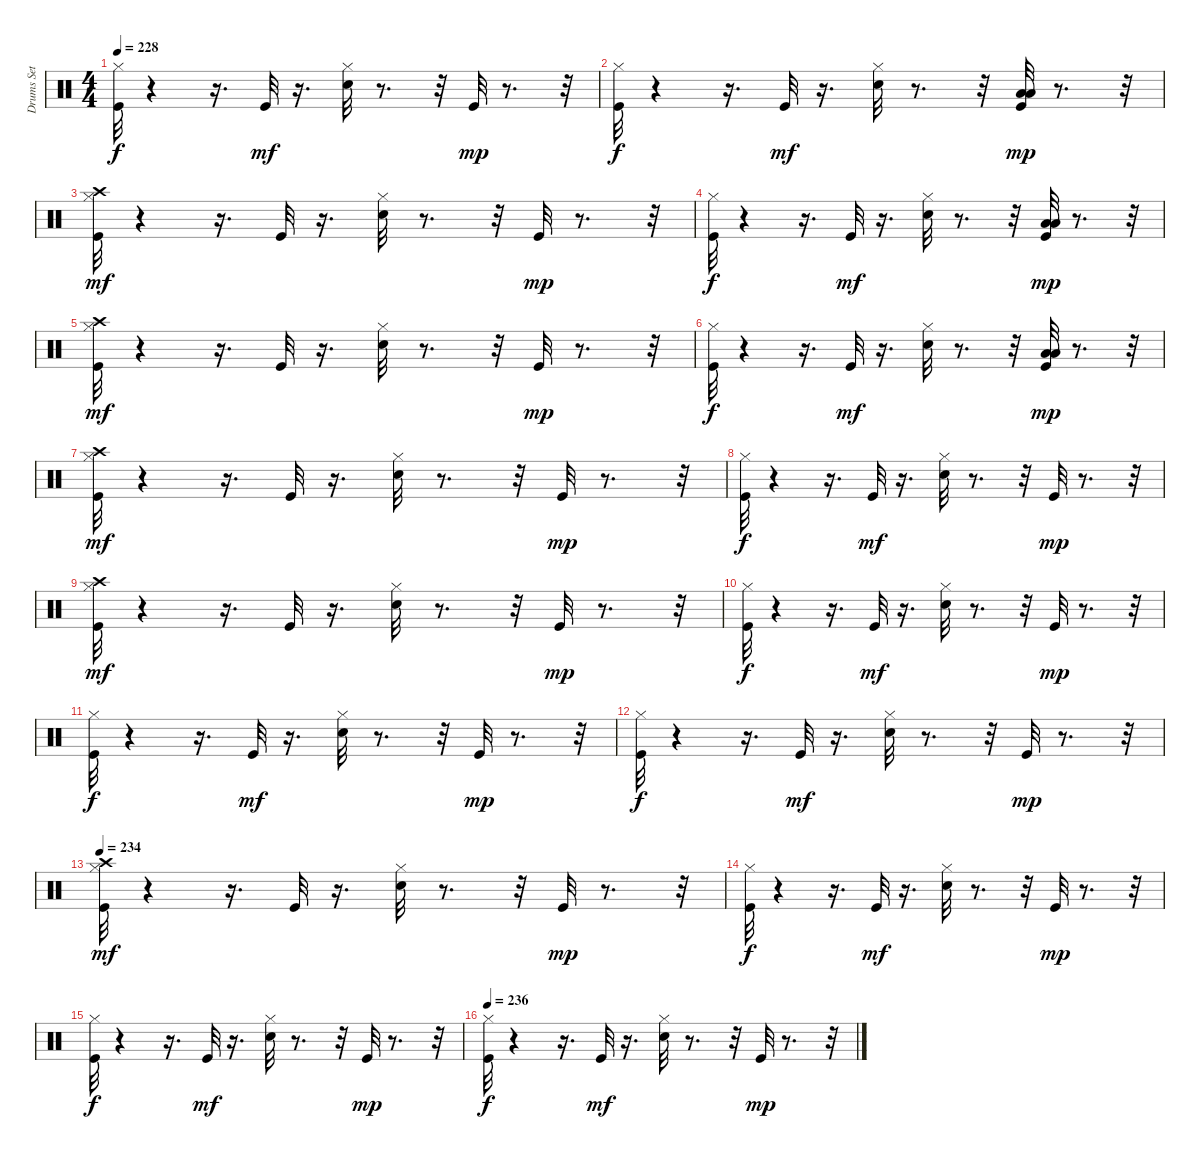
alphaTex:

\track ("Drums Set" "Drums Set") {instrument percussion}
\staff {score}
\articulation defaults
\ts (4 4)
\tempo 228
\clef neutral
\ks c
("Kick (hit)" "Hi-Hat (closed)").32{dy f} r.4 r.16{d} "Kick (hit)".32{dy mf} r.16{d} ("Hi-Hat (closed)" "Snare (hit) 2").32 r.8{d} r.32 "Kick (hit)".32{dy mp} r.8{d} r.32 |
("Kick (hit)" "Hi-Hat (closed)").32{dy f} r.4 r.16{d} "Kick (hit)".32{dy mf} r.16{d} ("Hi-Hat (closed)" "Snare (hit) 2").32 r.8{d} r.32 ("Low Tom (hit)" "Low Floor Tom (hit)" "Kick (hit)").32{dy mp} r.8{d} r.32 |
("Crash high (hit)" "Kick (hit)" "Hi-Hat (closed)").32{dy mf} r.4 r.16{d} "Kick (hit)".32 r.16{d} ("Hi-Hat (closed)" "Snare (hit) 2").32 r.8{d} r.32 "Kick (hit)".32{dy mp} r.8{d} r.32 |
("Kick (hit)" "Hi-Hat (closed)").32{dy f} r.4 r.16{d} "Kick (hit)".32{dy mf} r.16{d} ("Hi-Hat (closed)" "Snare (hit) 2").32 r.8{d} r.32 ("Low Tom (hit)" "Low Floor Tom (hit)" "Kick (hit)").32{dy mp} r.8{d} r.32 |
("Crash high (hit)" "Kick (hit)" "Hi-Hat (closed)").32{dy mf} r.4 r.16{d} "Kick (hit)".32 r.16{d} ("Hi-Hat (closed)" "Snare (hit) 2").32 r.8{d} r.32 "Kick (hit)".32{dy mp} r.8{d} r.32 |
("Kick (hit)" "Hi-Hat (closed)").32{dy f} r.4 r.16{d} "Kick (hit)".32{dy mf} r.16{d} ("Hi-Hat (closed)" "Snare (hit) 2").32 r.8{d} r.32 ("Low Tom (hit)" "Low Floor Tom (hit)" "Kick (hit)").32{dy mp} r.8{d} r.32 |
("Crash high (hit)" "Kick (hit)" "Hi-Hat (closed)").32{dy mf} r.4 r.16{d} "Kick (hit)".32 r.16{d} ("Hi-Hat (closed)" "Snare (hit) 2").32 r.8{d} r.32 "Kick (hit)".32{dy mp} r.8{d} r.32 |
("Kick (hit)" "Hi-Hat (closed)").32{dy f} r.4 r.16{d} "Kick (hit)".32{dy mf} r.16{d} ("Hi-Hat (closed)" "Snare (hit) 2").32 r.8{d} r.32 "Kick (hit)".32{dy mp} r.8{d} r.32 |
("Crash high (hit)" "Kick (hit)" "Hi-Hat (closed)").32{dy mf} r.4 r.16{d} "Kick (hit)".32 r.16{d} ("Hi-Hat (closed)" "Snare (hit) 2").32 r.8{d} r.32 "Kick (hit)".32{dy mp} r.8{d} r.32 |
("Kick (hit)" "Hi-Hat (closed)").32{dy f} r.4 r.16{d} "Kick (hit)".32{dy mf} r.16{d} ("Hi-Hat (closed)" "Snare (hit) 2").32 r.8{d} r.32 "Kick (hit)".32{dy mp} r.8{d} r.32 |
("Kick (hit)" "Hi-Hat (closed)").32{dy f} r.4 r.16{d} "Kick (hit)".32{dy mf} r.16{d} ("Hi-Hat (closed)" "Snare (hit) 2").32 r.8{d} r.32 "Kick (hit)".32{dy mp} r.8{d} r.32 |
("Kick (hit)" "Hi-Hat (closed)").32{dy f} r.4 r.16{d} "Kick (hit)".32{dy mf} r.16{d} ("Hi-Hat (closed)" "Snare (hit) 2").32 r.8{d} r.32 "Kick (hit)".32{dy mp} r.8{d} r.32 |
\tempo 234
("Crash high (hit)" "Kick (hit)" "Hi-Hat (closed)").32{dy mf} r.4 r.16{d} "Kick (hit)".32 r.16{d} ("Hi-Hat (closed)" "Snare (hit) 2").32 r.8{d} r.32 "Kick (hit)".32{dy mp} r.8{d} r.32 |
("Kick (hit)" "Hi-Hat (closed)").32{dy f} r.4 r.16{d} "Kick (hit)".32{dy mf} r.16{d} ("Hi-Hat (closed)" "Snare (hit) 2").32 r.8{d} r.32 "Kick (hit)".32{dy mp} r.8{d} r.32 |
("Kick (hit)" "Hi-Hat (closed)").32{dy f} r.4 r.16{d} "Kick (hit)".32{dy mf} r.16{d} ("Hi-Hat (closed)" "Snare (hit) 2").32 r.8{d} r.32 "Kick (hit)".32{dy mp} r.8{d} r.32 |
\tempo 236
("Kick (hit)" "Hi-Hat (closed)").32{dy f} r.4 r.16{d} "Kick (hit)".32{dy mf} r.16{d} ("Hi-Hat (closed)" "Snare (hit) 2").32 r.8{d} r.32 "Kick (hit)".32{dy mp} r.8{d} r.32
